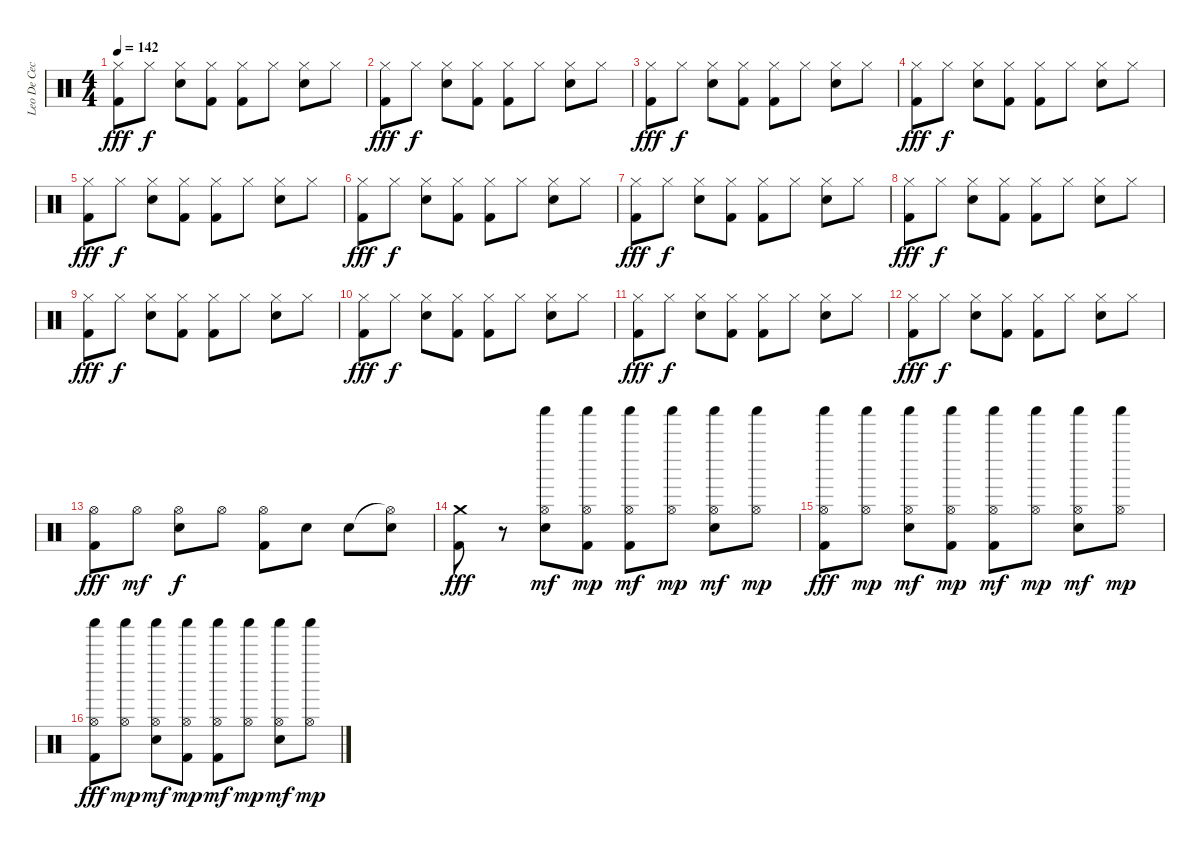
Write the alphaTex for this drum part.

\track ("Leo De Cecco" "Leo De Cec") {instrument percussion}
\staff {score}
\articulation defaults
\ts (4 4)
\tempo 142
\clef neutral
\ks c
("Hi-Hat (closed)" "Kick (hit) 2").8{dy fff} "Hi-Hat (closed)".8{dy f} ("Hi-Hat (closed)" "Electric Snare (hit)").8 ("Hi-Hat (closed)" "Kick (hit) 2").8 ("Hi-Hat (closed)" "Kick (hit) 2").8 "Hi-Hat (closed)".8 ("Hi-Hat (closed)" "Electric Snare (hit)").8 "Hi-Hat (closed)".8 |
("Hi-Hat (closed)" "Kick (hit) 2").8{dy fff} "Hi-Hat (closed)".8{dy f} ("Hi-Hat (closed)" "Electric Snare (hit)").8 ("Hi-Hat (closed)" "Kick (hit) 2").8 ("Hi-Hat (closed)" "Kick (hit) 2").8 "Hi-Hat (closed)".8 ("Hi-Hat (closed)" "Electric Snare (hit)").8 "Hi-Hat (closed)".8 |
("Hi-Hat (closed)" "Kick (hit) 2").8{dy fff} "Hi-Hat (closed)".8{dy f} ("Hi-Hat (closed)" "Electric Snare (hit)").8 ("Hi-Hat (closed)" "Kick (hit) 2").8 ("Hi-Hat (closed)" "Kick (hit) 2").8 "Hi-Hat (closed)".8 ("Hi-Hat (closed)" "Electric Snare (hit)").8 "Hi-Hat (closed)".8 |
("Hi-Hat (closed)" "Kick (hit) 2").8{dy fff} "Hi-Hat (closed)".8{dy f} ("Hi-Hat (closed)" "Electric Snare (hit)").8 ("Hi-Hat (closed)" "Kick (hit) 2").8 ("Hi-Hat (closed)" "Kick (hit) 2").8 "Hi-Hat (closed)".8 ("Hi-Hat (closed)" "Electric Snare (hit)").8 "Hi-Hat (closed)".8 |
("Hi-Hat (closed)" "Kick (hit) 2").8{dy fff} "Hi-Hat (closed)".8{dy f} ("Hi-Hat (closed)" "Electric Snare (hit)").8 ("Hi-Hat (closed)" "Kick (hit) 2").8 ("Hi-Hat (closed)" "Kick (hit) 2").8 "Hi-Hat (closed)".8 ("Hi-Hat (closed)" "Electric Snare (hit)").8 "Hi-Hat (closed)".8 |
("Hi-Hat (closed)" "Kick (hit) 2").8{dy fff} "Hi-Hat (closed)".8{dy f} ("Hi-Hat (closed)" "Electric Snare (hit)").8 ("Hi-Hat (closed)" "Kick (hit) 2").8 ("Hi-Hat (closed)" "Kick (hit) 2").8 "Hi-Hat (closed)".8 ("Hi-Hat (closed)" "Electric Snare (hit)").8 "Hi-Hat (closed)".8 |
("Hi-Hat (closed)" "Kick (hit) 2").8{dy fff} "Hi-Hat (closed)".8{dy f} ("Hi-Hat (closed)" "Electric Snare (hit)").8 ("Hi-Hat (closed)" "Kick (hit) 2").8 ("Hi-Hat (closed)" "Kick (hit) 2").8 "Hi-Hat (closed)".8 ("Hi-Hat (closed)" "Electric Snare (hit)").8 "Hi-Hat (closed)".8 |
("Hi-Hat (closed)" "Kick (hit) 2").8{dy fff} "Hi-Hat (closed)".8{dy f} ("Hi-Hat (closed)" "Electric Snare (hit)").8 ("Hi-Hat (closed)" "Kick (hit) 2").8 ("Hi-Hat (closed)" "Kick (hit) 2").8 "Hi-Hat (closed)".8 ("Hi-Hat (closed)" "Electric Snare (hit)").8 "Hi-Hat (closed)".8 |
("Hi-Hat (closed)" "Kick (hit) 2").8{dy fff} "Hi-Hat (closed)".8{dy f} ("Hi-Hat (closed)" "Electric Snare (hit)").8 ("Hi-Hat (closed)" "Kick (hit) 2").8 ("Hi-Hat (closed)" "Kick (hit) 2").8 "Hi-Hat (closed)".8 ("Hi-Hat (closed)" "Electric Snare (hit)").8 "Hi-Hat (closed)".8 |
("Hi-Hat (closed)" "Kick (hit) 2").8{dy fff} "Hi-Hat (closed)".8{dy f} ("Hi-Hat (closed)" "Electric Snare (hit)").8 ("Hi-Hat (closed)" "Kick (hit) 2").8 ("Hi-Hat (closed)" "Kick (hit) 2").8 "Hi-Hat (closed)".8 ("Hi-Hat (closed)" "Electric Snare (hit)").8 "Hi-Hat (closed)".8 |
("Hi-Hat (closed)" "Kick (hit) 2").8{dy fff} "Hi-Hat (closed)".8{dy f} ("Hi-Hat (closed)" "Electric Snare (hit)").8 ("Hi-Hat (closed)" "Kick (hit) 2").8 ("Hi-Hat (closed)" "Kick (hit) 2").8 "Hi-Hat (closed)".8 ("Hi-Hat (closed)" "Electric Snare (hit)").8 "Hi-Hat (closed)".8 |
("Hi-Hat (closed)" "Kick (hit) 2").8{dy fff} "Hi-Hat (closed)".8{dy f} ("Hi-Hat (closed)" "Electric Snare (hit)").8 ("Hi-Hat (closed)" "Kick (hit) 2").8 ("Hi-Hat (closed)" "Kick (hit) 2").8 "Hi-Hat (closed)".8 ("Hi-Hat (closed)" "Electric Snare (hit)").8 "Hi-Hat (closed)".8 |
("Hi-Hat (open)" "Kick (hit) 2").8{dy fff} "Hi-Hat (open)".8{dy mf} ("Hi-Hat (open)" "Electric Snare (hit)").8{dy f} "Hi-Hat (open)".8 ("Hi-Hat (open)" "Kick (hit) 2").8 "Electric Snare (hit)".8 "Electric Snare (hit)".8 ("Hi-Hat (open)"{t} "Electric Snare (hit)").8 |
("Crash medium (hit)" "Kick (hit) 2").8{dy fff} r.8 ("Shaker (hit)" "Hi-Hat (open)" "Electric Snare (hit)").8{dy mf} ("Shaker (hit)" "Hi-Hat (open)" "Kick (hit) 2").8{dy mp} ("Shaker (hit)" "Hi-Hat (open)" "Kick (hit) 2").8{dy mf} ("Shaker (hit)" "Hi-Hat (open)").8{dy mp} ("Shaker (hit)" "Hi-Hat (open)" "Electric Snare (hit)").8{dy mf} ("Shaker (hit)" "Hi-Hat (open)").8{dy mp} |
("Shaker (hit)" "Hi-Hat (open)" "Kick (hit) 2").8{dy fff} ("Shaker (hit)" "Hi-Hat (open)").8{dy mp} ("Shaker (hit)" "Hi-Hat (open)" "Electric Snare (hit)").8{dy mf} ("Shaker (hit)" "Hi-Hat (open)" "Kick (hit) 2").8{dy mp} ("Shaker (hit)" "Hi-Hat (open)" "Kick (hit) 2").8{dy mf} ("Shaker (hit)" "Hi-Hat (open)").8{dy mp} ("Shaker (hit)" "Hi-Hat (open)" "Electric Snare (hit)").8{dy mf} ("Shaker (hit)" "Hi-Hat (open)").8{dy mp} |
("Shaker (hit)" "Hi-Hat (open)" "Kick (hit) 2").8{dy fff} ("Shaker (hit)" "Hi-Hat (open)").8{dy mp} ("Shaker (hit)" "Hi-Hat (open)" "Electric Snare (hit)").8{dy mf} ("Shaker (hit)" "Hi-Hat (open)" "Kick (hit) 2").8{dy mp} ("Shaker (hit)" "Hi-Hat (open)" "Kick (hit) 2").8{dy mf} ("Shaker (hit)" "Hi-Hat (open)").8{dy mp} ("Shaker (hit)" "Hi-Hat (open)" "Electric Snare (hit)").8{dy mf} ("Shaker (hit)" "Hi-Hat (open)").8{dy mp}
